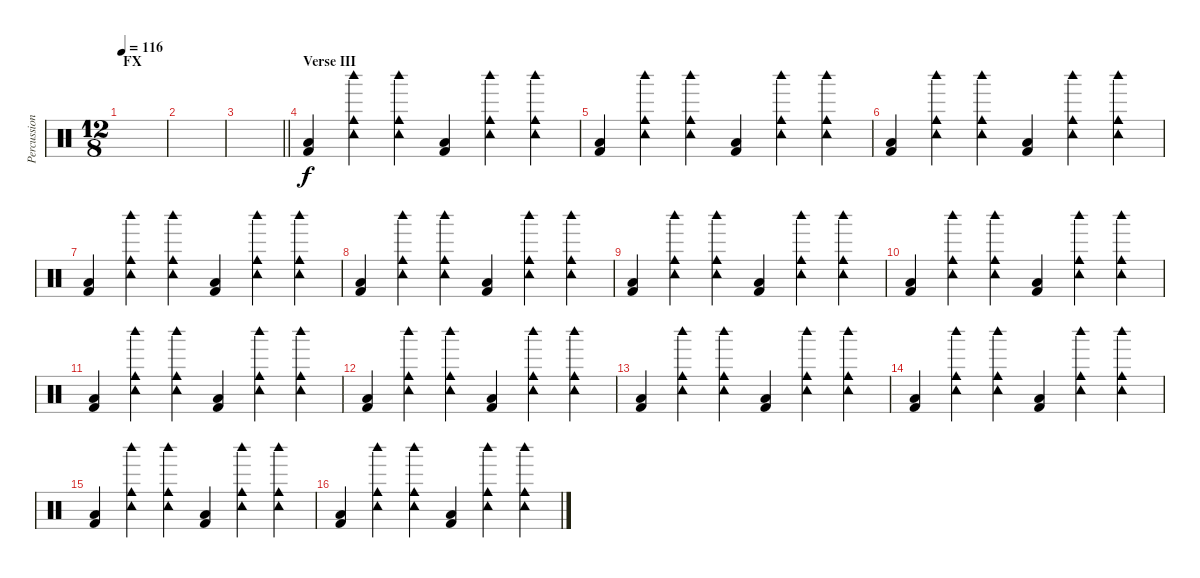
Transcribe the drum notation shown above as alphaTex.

\track ("Percussion" "Percussion") {instrument percussion}
\staff {score}
\articulation defaults
\ts (12 8)
\section ("" "FX")
\tempo 116
\clef neutral
\ks c
|
|
\barLineRight lightlight
|
\section ("" "Verse III")
("Low Floor Tom (hit)" "Kick (hit) 2").4{dy f} ("Tambourine (hit)" "Cowbell medium (hit)" "Woodblock high (hit)").4 ("Tambourine (hit)" "Cowbell medium (hit)" "Woodblock high (hit)").4 ("Low Floor Tom (hit)" "Kick (hit) 2").4 ("Tambourine (hit)" "Cowbell medium (hit)" "Woodblock high (hit)").4 ("Tambourine (hit)" "Cowbell medium (hit)" "Woodblock high (hit)").4 |
("Low Floor Tom (hit)" "Kick (hit) 2").4 ("Tambourine (hit)" "Cowbell medium (hit)" "Woodblock high (hit)").4 ("Tambourine (hit)" "Cowbell medium (hit)" "Woodblock high (hit)").4 ("Low Floor Tom (hit)" "Kick (hit) 2").4 ("Tambourine (hit)" "Cowbell medium (hit)" "Woodblock high (hit)").4 ("Tambourine (hit)" "Cowbell medium (hit)" "Woodblock high (hit)").4 |
("Low Floor Tom (hit)" "Kick (hit) 2").4 ("Tambourine (hit)" "Cowbell medium (hit)" "Woodblock high (hit)").4 ("Tambourine (hit)" "Cowbell medium (hit)" "Woodblock high (hit)").4 ("Low Floor Tom (hit)" "Kick (hit) 2").4 ("Tambourine (hit)" "Cowbell medium (hit)" "Woodblock high (hit)").4 ("Tambourine (hit)" "Cowbell medium (hit)" "Woodblock high (hit)").4 |
("Low Floor Tom (hit)" "Kick (hit) 2").4 ("Tambourine (hit)" "Cowbell medium (hit)" "Woodblock high (hit)").4 ("Tambourine (hit)" "Cowbell medium (hit)" "Woodblock high (hit)").4 ("Low Floor Tom (hit)" "Kick (hit) 2").4 ("Tambourine (hit)" "Cowbell medium (hit)" "Woodblock high (hit)").4 ("Tambourine (hit)" "Cowbell medium (hit)" "Woodblock high (hit)").4 |
("Low Floor Tom (hit)" "Kick (hit) 2").4 ("Tambourine (hit)" "Cowbell medium (hit)" "Woodblock high (hit)").4 ("Tambourine (hit)" "Cowbell medium (hit)" "Woodblock high (hit)").4 ("Low Floor Tom (hit)" "Kick (hit) 2").4 ("Tambourine (hit)" "Cowbell medium (hit)" "Woodblock high (hit)").4 ("Tambourine (hit)" "Cowbell medium (hit)" "Woodblock high (hit)").4 |
("Low Floor Tom (hit)" "Kick (hit) 2").4 ("Tambourine (hit)" "Cowbell medium (hit)" "Woodblock high (hit)").4 ("Tambourine (hit)" "Cowbell medium (hit)" "Woodblock high (hit)").4 ("Low Floor Tom (hit)" "Kick (hit) 2").4 ("Tambourine (hit)" "Cowbell medium (hit)" "Woodblock high (hit)").4 ("Tambourine (hit)" "Cowbell medium (hit)" "Woodblock high (hit)").4 |
("Low Floor Tom (hit)" "Kick (hit) 2").4 ("Tambourine (hit)" "Cowbell medium (hit)" "Woodblock high (hit)").4 ("Tambourine (hit)" "Cowbell medium (hit)" "Woodblock high (hit)").4 ("Low Floor Tom (hit)" "Kick (hit) 2").4 ("Tambourine (hit)" "Cowbell medium (hit)" "Woodblock high (hit)").4 ("Tambourine (hit)" "Cowbell medium (hit)" "Woodblock high (hit)").4 |
("Low Floor Tom (hit)" "Kick (hit) 2").4 ("Tambourine (hit)" "Cowbell medium (hit)" "Woodblock high (hit)").4 ("Tambourine (hit)" "Cowbell medium (hit)" "Woodblock high (hit)").4 ("Low Floor Tom (hit)" "Kick (hit) 2").4 ("Tambourine (hit)" "Cowbell medium (hit)" "Woodblock high (hit)").4 ("Tambourine (hit)" "Cowbell medium (hit)" "Woodblock high (hit)").4 |
("Low Floor Tom (hit)" "Kick (hit) 2").4 ("Tambourine (hit)" "Cowbell medium (hit)" "Woodblock high (hit)").4 ("Tambourine (hit)" "Cowbell medium (hit)" "Woodblock high (hit)").4 ("Low Floor Tom (hit)" "Kick (hit) 2").4 ("Tambourine (hit)" "Cowbell medium (hit)" "Woodblock high (hit)").4 ("Tambourine (hit)" "Cowbell medium (hit)" "Woodblock high (hit)").4 |
("Low Floor Tom (hit)" "Kick (hit) 2").4 ("Tambourine (hit)" "Cowbell medium (hit)" "Woodblock high (hit)").4 ("Tambourine (hit)" "Cowbell medium (hit)" "Woodblock high (hit)").4 ("Low Floor Tom (hit)" "Kick (hit) 2").4 ("Tambourine (hit)" "Cowbell medium (hit)" "Woodblock high (hit)").4 ("Tambourine (hit)" "Cowbell medium (hit)" "Woodblock high (hit)").4 |
("Low Floor Tom (hit)" "Kick (hit) 2").4 ("Tambourine (hit)" "Cowbell medium (hit)" "Woodblock high (hit)").4 ("Tambourine (hit)" "Cowbell medium (hit)" "Woodblock high (hit)").4 ("Low Floor Tom (hit)" "Kick (hit) 2").4 ("Tambourine (hit)" "Cowbell medium (hit)" "Woodblock high (hit)").4 ("Tambourine (hit)" "Cowbell medium (hit)" "Woodblock high (hit)").4 |
("Low Floor Tom (hit)" "Kick (hit) 2").4 ("Tambourine (hit)" "Cowbell medium (hit)" "Woodblock high (hit)").4 ("Tambourine (hit)" "Cowbell medium (hit)" "Woodblock high (hit)").4 ("Low Floor Tom (hit)" "Kick (hit) 2").4 ("Tambourine (hit)" "Cowbell medium (hit)" "Woodblock high (hit)").4 ("Tambourine (hit)" "Cowbell medium (hit)" "Woodblock high (hit)").4 |
("Low Floor Tom (hit)" "Kick (hit) 2").4 ("Tambourine (hit)" "Cowbell medium (hit)" "Woodblock high (hit)").4 ("Tambourine (hit)" "Cowbell medium (hit)" "Woodblock high (hit)").4 ("Low Floor Tom (hit)" "Kick (hit) 2").4 ("Tambourine (hit)" "Cowbell medium (hit)" "Woodblock high (hit)").4 ("Tambourine (hit)" "Cowbell medium (hit)" "Woodblock high (hit)").4
